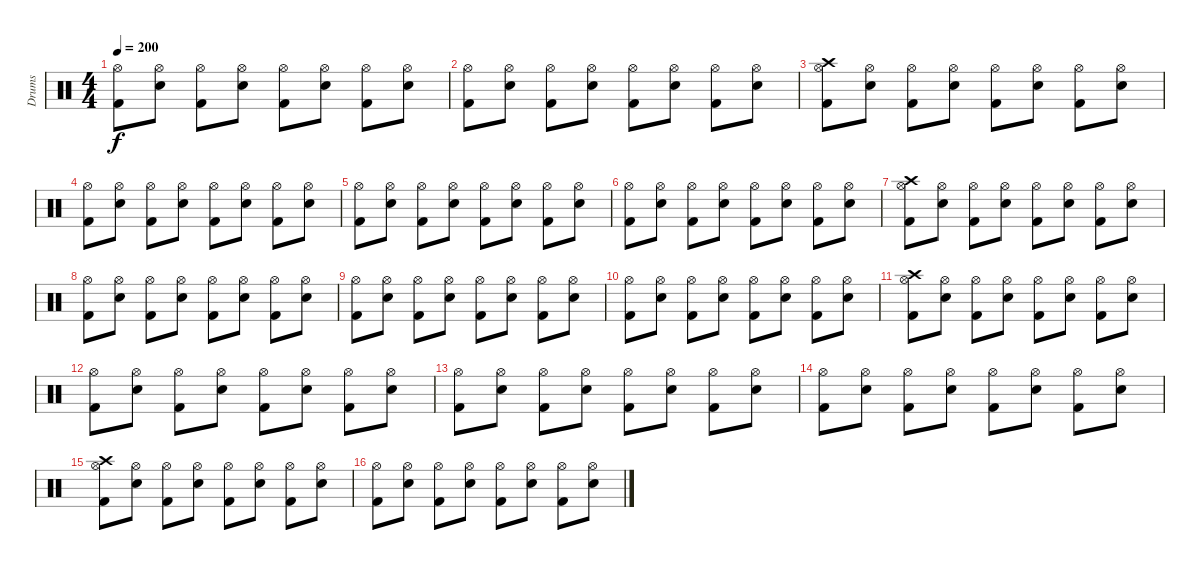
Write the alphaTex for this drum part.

\track ("Drums" "Drums") {instrument percussion}
\staff {score}
\articulation defaults
\ts (4 4)
\tempo 200
\clef neutral
\ks c
("Kick (hit) 2" "Hi-Hat (open)").8{dy f} ("Snare (hit) 2" "Hi-Hat (open)").8 ("Kick (hit) 2" "Hi-Hat (open)").8 ("Snare (hit) 2" "Hi-Hat (open)").8 ("Kick (hit) 2" "Hi-Hat (open)").8 ("Snare (hit) 2" "Hi-Hat (open)").8 ("Kick (hit) 2" "Hi-Hat (open)").8 ("Snare (hit) 2" "Hi-Hat (open)").8 |
("Kick (hit) 2" "Hi-Hat (open)").8 ("Snare (hit) 2" "Hi-Hat (open)").8 ("Kick (hit) 2" "Hi-Hat (open)").8 ("Snare (hit) 2" "Hi-Hat (open)").8 ("Kick (hit) 2" "Hi-Hat (open)").8 ("Snare (hit) 2" "Hi-Hat (open)").8 ("Kick (hit) 2" "Hi-Hat (open)").8 ("Snare (hit) 2" "Hi-Hat (open)").8 |
("Kick (hit) 2" "Hi-Hat (open)" "Crash high (hit)").8 ("Snare (hit) 2" "Hi-Hat (open)").8 ("Kick (hit) 2" "Hi-Hat (open)").8 ("Snare (hit) 2" "Hi-Hat (open)").8 ("Kick (hit) 2" "Hi-Hat (open)").8 ("Snare (hit) 2" "Hi-Hat (open)").8 ("Kick (hit) 2" "Hi-Hat (open)").8 ("Snare (hit) 2" "Hi-Hat (open)").8 |
("Kick (hit) 2" "Hi-Hat (open)").8 ("Snare (hit) 2" "Hi-Hat (open)").8 ("Kick (hit) 2" "Hi-Hat (open)").8 ("Snare (hit) 2" "Hi-Hat (open)").8 ("Kick (hit) 2" "Hi-Hat (open)").8 ("Snare (hit) 2" "Hi-Hat (open)").8 ("Kick (hit) 2" "Hi-Hat (open)").8 ("Snare (hit) 2" "Hi-Hat (open)").8 |
("Kick (hit) 2" "Hi-Hat (open)").8 ("Snare (hit) 2" "Hi-Hat (open)").8 ("Kick (hit) 2" "Hi-Hat (open)").8 ("Snare (hit) 2" "Hi-Hat (open)").8 ("Kick (hit) 2" "Hi-Hat (open)").8 ("Snare (hit) 2" "Hi-Hat (open)").8 ("Kick (hit) 2" "Hi-Hat (open)").8 ("Snare (hit) 2" "Hi-Hat (open)").8 |
("Kick (hit) 2" "Hi-Hat (open)").8 ("Snare (hit) 2" "Hi-Hat (open)").8 ("Kick (hit) 2" "Hi-Hat (open)").8 ("Snare (hit) 2" "Hi-Hat (open)").8 ("Kick (hit) 2" "Hi-Hat (open)").8 ("Snare (hit) 2" "Hi-Hat (open)").8 ("Kick (hit) 2" "Hi-Hat (open)").8 ("Snare (hit) 2" "Hi-Hat (open)").8 |
("Kick (hit) 2" "Hi-Hat (open)" "Crash high (hit)").8 ("Snare (hit) 2" "Hi-Hat (open)").8 ("Kick (hit) 2" "Hi-Hat (open)").8 ("Snare (hit) 2" "Hi-Hat (open)").8 ("Kick (hit) 2" "Hi-Hat (open)").8 ("Snare (hit) 2" "Hi-Hat (open)").8 ("Kick (hit) 2" "Hi-Hat (open)").8 ("Snare (hit) 2" "Hi-Hat (open)").8 |
("Kick (hit) 2" "Hi-Hat (open)").8 ("Snare (hit) 2" "Hi-Hat (open)").8 ("Kick (hit) 2" "Hi-Hat (open)").8 ("Snare (hit) 2" "Hi-Hat (open)").8 ("Kick (hit) 2" "Hi-Hat (open)").8 ("Snare (hit) 2" "Hi-Hat (open)").8 ("Kick (hit) 2" "Hi-Hat (open)").8 ("Snare (hit) 2" "Hi-Hat (open)").8 |
("Kick (hit) 2" "Hi-Hat (open)").8 ("Snare (hit) 2" "Hi-Hat (open)").8 ("Kick (hit) 2" "Hi-Hat (open)").8 ("Snare (hit) 2" "Hi-Hat (open)").8 ("Kick (hit) 2" "Hi-Hat (open)").8 ("Snare (hit) 2" "Hi-Hat (open)").8 ("Kick (hit) 2" "Hi-Hat (open)").8 ("Snare (hit) 2" "Hi-Hat (open)").8 |
("Kick (hit) 2" "Hi-Hat (open)").8 ("Snare (hit) 2" "Hi-Hat (open)").8 ("Kick (hit) 2" "Hi-Hat (open)").8 ("Snare (hit) 2" "Hi-Hat (open)").8 ("Kick (hit) 2" "Hi-Hat (open)").8 ("Snare (hit) 2" "Hi-Hat (open)").8 ("Kick (hit) 2" "Hi-Hat (open)").8 ("Snare (hit) 2" "Hi-Hat (open)").8 |
("Kick (hit) 2" "Hi-Hat (open)" "Crash high (hit)").8 ("Snare (hit) 2" "Hi-Hat (open)").8 ("Kick (hit) 2" "Hi-Hat (open)").8 ("Snare (hit) 2" "Hi-Hat (open)").8 ("Kick (hit) 2" "Hi-Hat (open)").8 ("Snare (hit) 2" "Hi-Hat (open)").8 ("Kick (hit) 2" "Hi-Hat (open)").8 ("Snare (hit) 2" "Hi-Hat (open)").8 |
("Kick (hit) 2" "Hi-Hat (open)").8 ("Snare (hit) 2" "Hi-Hat (open)").8 ("Kick (hit) 2" "Hi-Hat (open)").8 ("Snare (hit) 2" "Hi-Hat (open)").8 ("Kick (hit) 2" "Hi-Hat (open)").8 ("Snare (hit) 2" "Hi-Hat (open)").8 ("Kick (hit) 2" "Hi-Hat (open)").8 ("Snare (hit) 2" "Hi-Hat (open)").8 |
("Kick (hit) 2" "Hi-Hat (open)").8 ("Snare (hit) 2" "Hi-Hat (open)").8 ("Kick (hit) 2" "Hi-Hat (open)").8 ("Snare (hit) 2" "Hi-Hat (open)").8 ("Kick (hit) 2" "Hi-Hat (open)").8 ("Snare (hit) 2" "Hi-Hat (open)").8 ("Kick (hit) 2" "Hi-Hat (open)").8 ("Snare (hit) 2" "Hi-Hat (open)").8 |
("Kick (hit) 2" "Hi-Hat (open)").8 ("Snare (hit) 2" "Hi-Hat (open)").8 ("Kick (hit) 2" "Hi-Hat (open)").8 ("Snare (hit) 2" "Hi-Hat (open)").8 ("Kick (hit) 2" "Hi-Hat (open)").8 ("Snare (hit) 2" "Hi-Hat (open)").8 ("Kick (hit) 2" "Hi-Hat (open)").8 ("Snare (hit) 2" "Hi-Hat (open)").8 |
("Kick (hit) 2" "Hi-Hat (open)" "Crash high (hit)").8 ("Snare (hit) 2" "Hi-Hat (open)").8 ("Kick (hit) 2" "Hi-Hat (open)").8 ("Snare (hit) 2" "Hi-Hat (open)").8 ("Kick (hit) 2" "Hi-Hat (open)").8 ("Snare (hit) 2" "Hi-Hat (open)").8 ("Kick (hit) 2" "Hi-Hat (open)").8 ("Snare (hit) 2" "Hi-Hat (open)").8 |
("Kick (hit) 2" "Hi-Hat (open)").8 ("Snare (hit) 2" "Hi-Hat (open)").8 ("Kick (hit) 2" "Hi-Hat (open)").8 ("Snare (hit) 2" "Hi-Hat (open)").8 ("Kick (hit) 2" "Hi-Hat (open)").8 ("Snare (hit) 2" "Hi-Hat (open)").8 ("Kick (hit) 2" "Hi-Hat (open)").8 ("Snare (hit) 2" "Hi-Hat (open)").8
